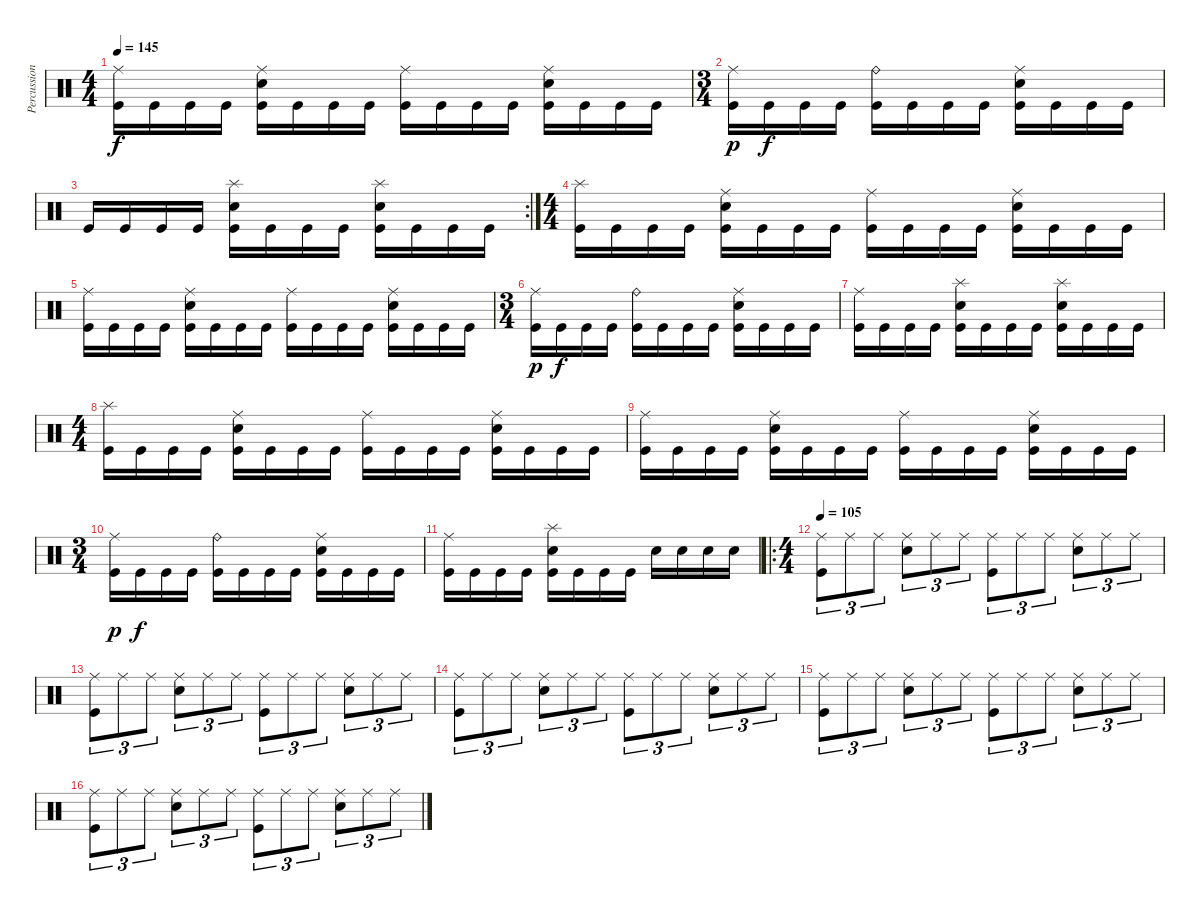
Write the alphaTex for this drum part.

\track ("Percussions" "Percussion") {instrument percussion}
\staff {score}
\articulation defaults
\ts (4 4)
\tempo 145
\clef neutral
\ks c
("Ride (middle)" "Kick (hit)").16{dy f} "Kick (hit)".16 "Kick (hit)".16 "Kick (hit)".16 ("Ride (middle)" "Electric Snare (hit)" "Kick (hit)").16 "Kick (hit)".16 "Kick (hit)".16 "Kick (hit)".16 ("Ride (middle)" "Kick (hit)").16 "Kick (hit)".16 "Kick (hit)".16 "Kick (hit)".16 ("Ride (middle)" "Electric Snare (hit)" "Kick (hit)").16 "Kick (hit)".16 "Kick (hit)".16 "Kick (hit)".16 |
\ts (3 4)
("Ride (middle)" "Kick (hit)").16{dy p} "Kick (hit)".16{dy f} "Kick (hit)".16 "Kick (hit)".16 ("Ride (bell)" "Kick (hit)").16 "Kick (hit)".16 "Kick (hit)".16 "Kick (hit)".16 ("Ride (middle)" "Electric Snare (hit)" "Kick (hit)").16 "Kick (hit)".16 "Kick (hit)".16 "Kick (hit)".16 |
\rc 2 "Kick (hit)".16 "Kick (hit)".16 "Kick (hit)".16 "Kick (hit)".16
("Splash (hit)" "Electric Snare (hit)" "Kick (hit)").16 "Kick (hit)".16 "Kick (hit)".16 "Kick (hit)".16 ("Splash (hit)" "Electric Snare (hit)" "Kick (hit)").16 "Kick (hit)".16 "Kick (hit)".16 "Kick (hit)".16 |
\ts (4 4)
("Splash (hit)" "Kick (hit)").16 "Kick (hit)".16 "Kick (hit)".16 "Kick (hit)".16 ("Ride (middle)" "Electric Snare (hit)" "Kick (hit)").16 "Kick (hit)".16 "Kick (hit)".16 "Kick (hit)".16 ("Ride (middle)" "Kick (hit)").16 "Kick (hit)".16 "Kick (hit)".16 "Kick (hit)".16 ("Ride (middle)" "Electric Snare (hit)" "Kick (hit)").16 "Kick (hit)".16 "Kick (hit)".16 "Kick (hit)".16 |
("Ride (middle)" "Kick (hit)").16 "Kick (hit)".16 "Kick (hit)".16 "Kick (hit)".16 ("Ride (middle)" "Electric Snare (hit)" "Kick (hit)").16 "Kick (hit)".16 "Kick (hit)".16 "Kick (hit)".16 ("Ride (middle)" "Kick (hit)").16 "Kick (hit)".16 "Kick (hit)".16 "Kick (hit)".16 ("Ride (middle)" "Electric Snare (hit)" "Kick (hit)").16 "Kick (hit)".16 "Kick (hit)".16 "Kick (hit)".16 |
\ts (3 4)
("Ride (middle)" "Kick (hit)").16{dy p} "Kick (hit)".16{dy f} "Kick (hit)".16 "Kick (hit)".16 ("Ride (bell)" "Kick (hit)").16 "Kick (hit)".16 "Kick (hit)".16 "Kick (hit)".16 ("Ride (middle)" "Electric Snare (hit)" "Kick (hit)").16 "Kick (hit)".16 "Kick (hit)".16 "Kick (hit)".16 |
("Ride (middle)" "Kick (hit)").16 "Kick (hit)".16 "Kick (hit)".16 "Kick (hit)".16 ("Splash (hit)" "Electric Snare (hit)" "Kick (hit)").16 "Kick (hit)".16 "Kick (hit)".16 "Kick (hit)".16 ("Splash (hit)" "Electric Snare (hit)" "Kick (hit)").16 "Kick (hit)".16 "Kick (hit)".16 "Kick (hit)".16 |
\ts (4 4)
("Splash (hit)" "Kick (hit)").16 "Kick (hit)".16 "Kick (hit)".16 "Kick (hit)".16 ("Ride (middle)" "Electric Snare (hit)" "Kick (hit)").16 "Kick (hit)".16 "Kick (hit)".16 "Kick (hit)".16 ("Ride (middle)" "Kick (hit)").16 "Kick (hit)".16 "Kick (hit)".16 "Kick (hit)".16 ("Ride (middle)" "Electric Snare (hit)" "Kick (hit)").16 "Kick (hit)".16 "Kick (hit)".16 "Kick (hit)".16 |
("Ride (middle)" "Kick (hit)").16 "Kick (hit)".16 "Kick (hit)".16 "Kick (hit)".16 ("Ride (middle)" "Electric Snare (hit)" "Kick (hit)").16 "Kick (hit)".16 "Kick (hit)".16 "Kick (hit)".16 ("Ride (middle)" "Kick (hit)").16 "Kick (hit)".16 "Kick (hit)".16 "Kick (hit)".16 ("Ride (middle)" "Electric Snare (hit)" "Kick (hit)").16 "Kick (hit)".16 "Kick (hit)".16 "Kick (hit)".16 |
\ts (3 4)
("Ride (middle)" "Kick (hit)").16{dy p} "Kick (hit)".16{dy f} "Kick (hit)".16 "Kick (hit)".16 ("Ride (bell)" "Kick (hit)").16 "Kick (hit)".16 "Kick (hit)".16 "Kick (hit)".16 ("Ride (middle)" "Electric Snare (hit)" "Kick (hit)").16 "Kick (hit)".16 "Kick (hit)".16 "Kick (hit)".16 |
("Ride (middle)" "Kick (hit)").16 "Kick (hit)".16 "Kick (hit)".16 "Kick (hit)".16 ("Splash (hit)" "Electric Snare (hit)" "Kick (hit)").16 "Kick (hit)".16 "Kick (hit)".16 "Kick (hit)".16 "Electric Snare (hit)".16 "Electric Snare (hit)".16 "Electric Snare (hit)".16 "Electric Snare (hit)".16 |
\ro
\ts (4 4)
\tempo 105
("Ride (middle)" "Kick (hit)").8{tu (3 2)} "Ride (middle)".8{tu (3 2)} "Ride (middle)".8{tu (3 2)} ("Ride (middle)" "Electric Snare (hit)").8{tu (3 2)} "Ride (middle)".8{tu (3 2)} "Ride (middle)".8{tu (3 2)} ("Ride (middle)" "Kick (hit)").8{tu (3 2)} "Ride (middle)".8{tu (3 2)} "Ride (middle)".8{tu (3 2)} ("Ride (middle)" "Electric Snare (hit)").8{tu (3 2)} "Ride (middle)".8{tu (3 2)} "Ride (middle)".8{tu (3 2)} |
("Ride (middle)" "Kick (hit)").8{tu (3 2)} "Ride (middle)".8{tu (3 2)} "Ride (middle)".8{tu (3 2)} ("Ride (middle)" "Electric Snare (hit)").8{tu (3 2)} "Ride (middle)".8{tu (3 2)} "Ride (middle)".8{tu (3 2)} ("Ride (middle)" "Kick (hit)").8{tu (3 2)} "Ride (middle)".8{tu (3 2)} "Ride (middle)".8{tu (3 2)} ("Ride (middle)" "Electric Snare (hit)").8{tu (3 2)} "Ride (middle)".8{tu (3 2)} "Ride (middle)".8{tu (3 2)} |
("Ride (middle)" "Kick (hit)").8{tu (3 2)} "Ride (middle)".8{tu (3 2)} "Ride (middle)".8{tu (3 2)} ("Ride (middle)" "Electric Snare (hit)").8{tu (3 2)} "Ride (middle)".8{tu (3 2)} "Ride (middle)".8{tu (3 2)} ("Ride (middle)" "Kick (hit)").8{tu (3 2)} "Ride (middle)".8{tu (3 2)} "Ride (middle)".8{tu (3 2)} ("Ride (middle)" "Electric Snare (hit)").8{tu (3 2)} "Ride (middle)".8{tu (3 2)} "Ride (middle)".8{tu (3 2)} |
("Ride (middle)" "Kick (hit)").8{tu (3 2)} "Ride (middle)".8{tu (3 2)} "Ride (middle)".8{tu (3 2)} ("Ride (middle)" "Electric Snare (hit)").8{tu (3 2)} "Ride (middle)".8{tu (3 2)} "Ride (middle)".8{tu (3 2)} ("Ride (middle)" "Kick (hit)").8{tu (3 2)} "Ride (middle)".8{tu (3 2)} "Ride (middle)".8{tu (3 2)} ("Ride (middle)" "Electric Snare (hit)").8{tu (3 2)} "Ride (middle)".8{tu (3 2)} "Ride (middle)".8{tu (3 2)} |
("Ride (middle)" "Kick (hit)").8{tu (3 2)} "Ride (middle)".8{tu (3 2)} "Ride (middle)".8{tu (3 2)} ("Ride (middle)" "Electric Snare (hit)").8{tu (3 2)} "Ride (middle)".8{tu (3 2)} "Ride (middle)".8{tu (3 2)} ("Ride (middle)" "Kick (hit)").8{tu (3 2)} "Ride (middle)".8{tu (3 2)} "Ride (middle)".8{tu (3 2)} ("Ride (middle)" "Electric Snare (hit)").8{tu (3 2)} "Ride (middle)".8{tu (3 2)} "Ride (middle)".8{tu (3 2)}
